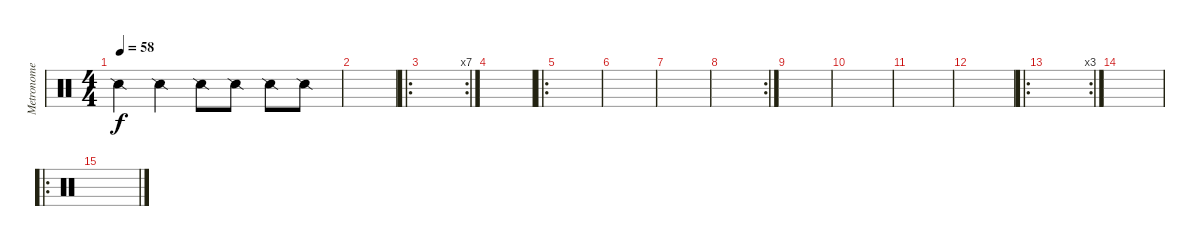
\track ("Metronome" "Metronome") {instrument percussion}
\staff {score}
\articulation defaults
\ts (4 4)
\tempo 58
\clef neutral
\ks c "Snare (side stick) 2".4{dy f} "Snare (side stick) 2".4 "Snare (side stick) 2".8 "Snare (side stick) 2".8 "Snare (side stick) 2".8 "Snare (side stick) 2".8
|
|
\ro
\rc 7
|
|
\ro
|
|
|
\rc 2
|
|
|
|
|
\ro
\rc 3
|
|
\ro
